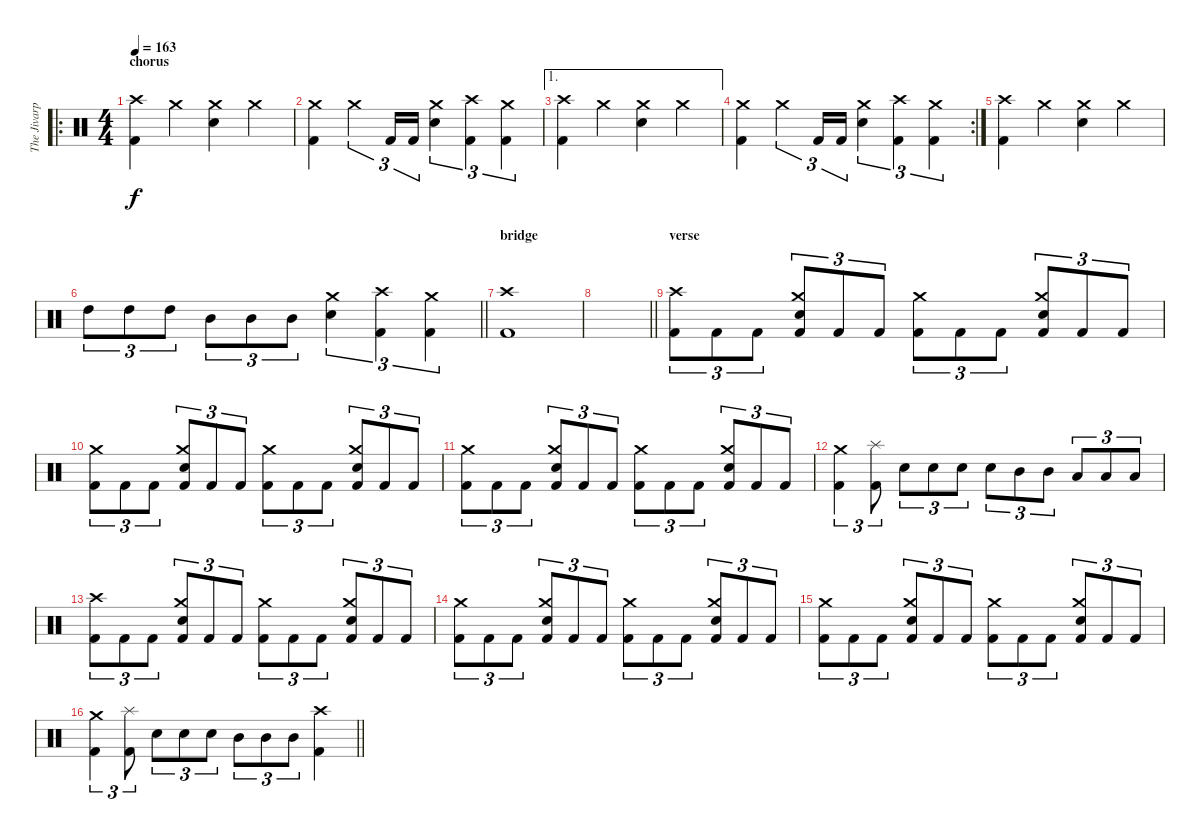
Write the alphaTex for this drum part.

\track ("The Jivarp" "The Jivarp") {instrument percussion}
\staff {score}
\articulation defaults
\ro
\ts (4 4)
\section ("" "chorus")
\tempo 163
\clef neutral
\ks c
("Crash high (hit)" "Kick (hit) 2").4{dy f} "Crash medium (hit)".4 ("Crash medium (hit)" "Electric Snare (hit)").4 "Crash medium (hit)".4 |
("Crash medium (hit)" "Kick (hit) 2").4 "Crash medium (hit)".4{tu (3 2)} "Kick (hit) 2".16{tu (3 2)} "Kick (hit) 2".16{tu (3 2)} ("Crash medium (hit)" "Electric Snare (hit)").4{tu (3 2)} ("Crash high (hit)" "Kick (hit) 2").4{tu (3 2)} ("Crash medium (hit)" "Kick (hit) 2").4{tu (3 2)} |
\ae 1
("Crash high (hit)" "Kick (hit) 2").4 "Crash medium (hit)".4 ("Crash medium (hit)" "Electric Snare (hit)").4 "Crash medium (hit)".4 |
\rc 2
("Crash medium (hit)" "Kick (hit) 2").4 "Crash medium (hit)".4{tu (3 2)} "Kick (hit) 2".16{tu (3 2)} "Kick (hit) 2".16{tu (3 2)} ("Crash medium (hit)" "Electric Snare (hit)").4{tu (3 2)} ("Crash high (hit)" "Kick (hit) 2").4{tu (3 2)} ("Crash medium (hit)" "Kick (hit) 2").4{tu (3 2)} |
("Crash high (hit)" "Kick (hit) 2").4 "Crash medium (hit)".4 ("Crash medium (hit)" "Electric Snare (hit)").4 "Crash medium (hit)".4 |
\barLineRight lightlight "High Tom (hit)".8{tu (3 2)} "High Tom (hit)".8{tu (3 2)} "High Tom (hit)".8{tu (3 2)} "Mid Tom (hit)".8{tu (3 2)} "Mid Tom (hit)".8{tu (3 2)} "Mid Tom (hit)".8{tu (3 2)}
("Crash medium (hit)" "Electric Snare (hit)").4{tu (3 2)} ("Crash high (hit)" "Kick (hit) 2").4{tu (3 2)} ("Crash medium (hit)" "Kick (hit) 2").4{tu (3 2)} |
\section ("" "bridge")
("Crash high (hit)" "Kick (hit) 2").1 |
\barLineRight lightlight
|
\section ("" "verse")
("Crash high (hit)" "Kick (hit) 2").8{tu (3 2)} "Kick (hit) 2".8{tu (3 2)} "Kick (hit) 2".8{tu (3 2)} ("Crash medium (hit)" "Electric Snare (hit)" "Kick (hit) 2").8{tu (3 2)} "Kick (hit) 2".8{tu (3 2)} "Kick (hit) 2".8{tu (3 2)} ("Crash medium (hit)" "Kick (hit) 2").8{tu (3 2)} "Kick (hit) 2".8{tu (3 2)} "Kick (hit) 2".8{tu (3 2)} ("Crash medium (hit)" "Electric Snare (hit)" "Kick (hit) 2").8{tu (3 2)} "Kick (hit) 2".8{tu (3 2)} "Kick (hit) 2".8{tu (3 2)} |
("Crash medium (hit)" "Kick (hit) 2").8{tu (3 2)} "Kick (hit) 2".8{tu (3 2)} "Kick (hit) 2".8{tu (3 2)} ("Crash medium (hit)" "Electric Snare (hit)" "Kick (hit) 2").8{tu (3 2)} "Kick (hit) 2".8{tu (3 2)} "Kick (hit) 2".8{tu (3 2)} ("Crash medium (hit)" "Kick (hit) 2").8{tu (3 2)} "Kick (hit) 2".8{tu (3 2)} "Kick (hit) 2".8{tu (3 2)} ("Crash medium (hit)" "Electric Snare (hit)" "Kick (hit) 2").8{tu (3 2)} "Kick (hit) 2".8{tu (3 2)} "Kick (hit) 2".8{tu (3 2)} |
("Crash medium (hit)" "Kick (hit) 2").8{tu (3 2)} "Kick (hit) 2".8{tu (3 2)} "Kick (hit) 2".8{tu (3 2)} ("Crash medium (hit)" "Electric Snare (hit)" "Kick (hit) 2").8{tu (3 2)} "Kick (hit) 2".8{tu (3 2)} "Kick (hit) 2".8{tu (3 2)} ("Crash medium (hit)" "Kick (hit) 2").8{tu (3 2)} "Kick (hit) 2".8{tu (3 2)} "Kick (hit) 2".8{tu (3 2)} ("Crash medium (hit)" "Electric Snare (hit)" "Kick (hit) 2").8{tu (3 2)} "Kick (hit) 2".8{tu (3 2)} "Kick (hit) 2".8{tu (3 2)} |
("Crash medium (hit)" "Kick (hit) 2").4{tu (3 2)} ("Splash (hit)" "Kick (hit) 2").8{tu (3 2)} "Electric Snare (hit)".8{tu (3 2)} "Electric Snare (hit)".8{tu (3 2)} "Electric Snare (hit)".8{tu (3 2)} "Electric Snare (hit)".8{tu (3 2)} "Mid Tom (hit)".8{tu (3 2)} "Mid Tom (hit)".8{tu (3 2)} "Low Tom (hit)".8{tu (3 2)} "Low Tom (hit)".8{tu (3 2)} "Low Tom (hit)".8{tu (3 2)} |
("Crash high (hit)" "Kick (hit) 2").8{tu (3 2)} "Kick (hit) 2".8{tu (3 2)} "Kick (hit) 2".8{tu (3 2)} ("Crash medium (hit)" "Electric Snare (hit)" "Kick (hit) 2").8{tu (3 2)} "Kick (hit) 2".8{tu (3 2)} "Kick (hit) 2".8{tu (3 2)} ("Crash medium (hit)" "Kick (hit) 2").8{tu (3 2)} "Kick (hit) 2".8{tu (3 2)} "Kick (hit) 2".8{tu (3 2)} ("Crash medium (hit)" "Electric Snare (hit)" "Kick (hit) 2").8{tu (3 2)} "Kick (hit) 2".8{tu (3 2)} "Kick (hit) 2".8{tu (3 2)} |
("Crash medium (hit)" "Kick (hit) 2").8{tu (3 2)} "Kick (hit) 2".8{tu (3 2)} "Kick (hit) 2".8{tu (3 2)} ("Crash medium (hit)" "Electric Snare (hit)" "Kick (hit) 2").8{tu (3 2)} "Kick (hit) 2".8{tu (3 2)} "Kick (hit) 2".8{tu (3 2)} ("Crash medium (hit)" "Kick (hit) 2").8{tu (3 2)} "Kick (hit) 2".8{tu (3 2)} "Kick (hit) 2".8{tu (3 2)} ("Crash medium (hit)" "Electric Snare (hit)" "Kick (hit) 2").8{tu (3 2)} "Kick (hit) 2".8{tu (3 2)} "Kick (hit) 2".8{tu (3 2)} |
("Crash medium (hit)" "Kick (hit) 2").8{tu (3 2)} "Kick (hit) 2".8{tu (3 2)} "Kick (hit) 2".8{tu (3 2)} ("Crash medium (hit)" "Electric Snare (hit)" "Kick (hit) 2").8{tu (3 2)} "Kick (hit) 2".8{tu (3 2)} "Kick (hit) 2".8{tu (3 2)} ("Crash medium (hit)" "Kick (hit) 2").8{tu (3 2)} "Kick (hit) 2".8{tu (3 2)} "Kick (hit) 2".8{tu (3 2)} ("Crash medium (hit)" "Electric Snare (hit)" "Kick (hit) 2").8{tu (3 2)} "Kick (hit) 2".8{tu (3 2)} "Kick (hit) 2".8{tu (3 2)} |
\barLineRight lightlight
("Crash medium (hit)" "Kick (hit) 2").4{tu (3 2)} ("Splash (hit)" "Kick (hit) 2").8{tu (3 2)} "Electric Snare (hit)".8{tu (3 2)} "Electric Snare (hit)".8{tu (3 2)} "Electric Snare (hit)".8{tu (3 2)} "Mid Tom (hit)".8{tu (3 2)} "Mid Tom (hit)".8{tu (3 2)} "Mid Tom (hit)".8{tu (3 2)} ("Crash high (hit)" "Kick (hit) 2").4
